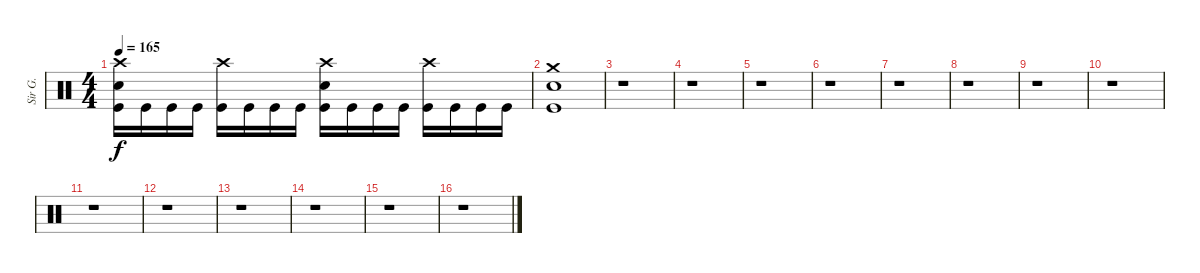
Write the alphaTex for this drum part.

\track ("Sir G." "Sir G.") {instrument percussion}
\staff {score}
\articulation defaults
\ts (4 4)
\tempo 165
\clef neutral
\ks c
("Crash high (hit)" "Electric Snare (hit)" "Kick (hit)").16{dy f} "Kick (hit)".16 "Kick (hit)".16 "Kick (hit)".16 ("Crash high (hit)" "Kick (hit)").16 "Kick (hit)".16 "Kick (hit)".16 "Kick (hit)".16 ("Crash high (hit)" "Electric Snare (hit)" "Kick (hit)").16 "Kick (hit)".16 "Kick (hit)".16 "Kick (hit)".16 ("Crash high (hit)" "Kick (hit)").16 "Kick (hit)".16 "Kick (hit)".16 "Kick (hit)".16 |
("Crash medium (hit)" "Electric Snare (hit)" "Kick (hit)").1 |
r.1 |
r.1 |
r.1 |
r.1 |
r.1 |
r.1 |
r.1 |
r.1 |
r.1 |
r.1 |
r.1 |
r.1 |
r.1 |
r.1
